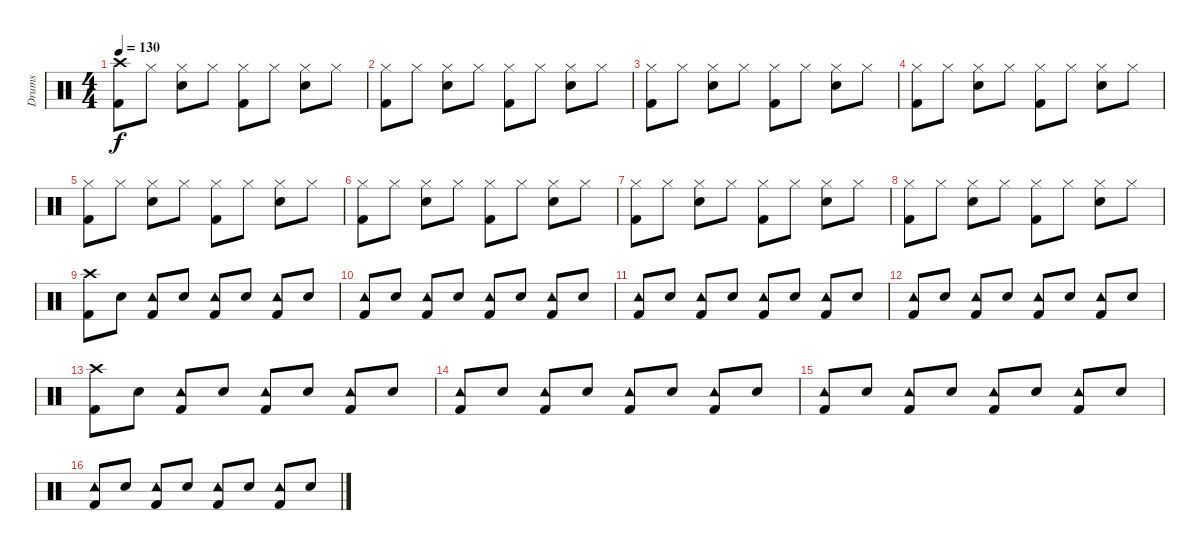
\track ("Drums" "Drums") {instrument percussion}
\staff {score}
\articulation defaults
\ts (4 4)
\tempo 130
\clef neutral
\ks c
("Crash high (hit)" "Kick (hit) 2").8{dy f} "Hi-Hat (closed)".8 ("Hi-Hat (closed)" "Snare (hit) 2").8 "Hi-Hat (closed)".8 ("Hi-Hat (closed)" "Kick (hit) 2").8 "Hi-Hat (closed)".8 ("Hi-Hat (closed)" "Snare (hit) 2").8 "Hi-Hat (closed)".8 |
("Hi-Hat (closed)" "Kick (hit) 2").8 "Hi-Hat (closed)".8 ("Hi-Hat (closed)" "Snare (hit) 2").8 "Hi-Hat (closed)".8 ("Hi-Hat (closed)" "Kick (hit) 2").8 "Hi-Hat (closed)".8 ("Hi-Hat (closed)" "Snare (hit) 2").8 "Hi-Hat (closed)".8 |
("Hi-Hat (closed)" "Kick (hit) 2").8 "Hi-Hat (closed)".8 ("Hi-Hat (closed)" "Snare (hit) 2").8 "Hi-Hat (closed)".8 ("Hi-Hat (closed)" "Kick (hit) 2").8 "Hi-Hat (closed)".8 ("Hi-Hat (closed)" "Snare (hit) 2").8 "Hi-Hat (closed)".8 |
("Hi-Hat (closed)" "Kick (hit) 2").8 "Hi-Hat (closed)".8 ("Hi-Hat (closed)" "Snare (hit) 2").8 "Hi-Hat (closed)".8 ("Hi-Hat (closed)" "Kick (hit) 2").8 "Hi-Hat (closed)".8 ("Hi-Hat (closed)" "Snare (hit) 2").8 "Hi-Hat (closed)".8 |
("Hi-Hat (closed)" "Kick (hit) 2").8 "Hi-Hat (closed)".8 ("Hi-Hat (closed)" "Snare (hit) 2").8 "Hi-Hat (closed)".8 ("Hi-Hat (closed)" "Kick (hit) 2").8 "Hi-Hat (closed)".8 ("Hi-Hat (closed)" "Snare (hit) 2").8 "Hi-Hat (closed)".8 |
("Hi-Hat (closed)" "Kick (hit) 2").8 "Hi-Hat (closed)".8 ("Hi-Hat (closed)" "Snare (hit) 2").8 "Hi-Hat (closed)".8 ("Hi-Hat (closed)" "Kick (hit) 2").8 "Hi-Hat (closed)".8 ("Hi-Hat (closed)" "Snare (hit) 2").8 "Hi-Hat (closed)".8 |
("Hi-Hat (closed)" "Kick (hit) 2").8 "Hi-Hat (closed)".8 ("Hi-Hat (closed)" "Snare (hit) 2").8 "Hi-Hat (closed)".8 ("Hi-Hat (closed)" "Kick (hit) 2").8 "Hi-Hat (closed)".8 ("Hi-Hat (closed)" "Snare (hit) 2").8 "Hi-Hat (closed)".8 |
("Hi-Hat (closed)" "Kick (hit) 2").8 "Hi-Hat (closed)".8 ("Hi-Hat (closed)" "Snare (hit) 2").8 "Hi-Hat (closed)".8 ("Hi-Hat (closed)" "Kick (hit) 2").8 "Hi-Hat (closed)".8 ("Hi-Hat (closed)" "Snare (hit) 2").8 "Hi-Hat (closed)".8 |
("Crash high (hit)" "Kick (hit) 2").8 "Snare (hit) 2".8 ("Tambourine (hit)" "Kick (hit) 2").8 "Snare (hit) 2".8 ("Tambourine (hit)" "Kick (hit) 2").8 "Snare (hit) 2".8 ("Tambourine (hit)" "Kick (hit) 2").8 "Snare (hit) 2".8 |
("Tambourine (hit)" "Kick (hit) 2").8 "Snare (hit) 2".8 ("Tambourine (hit)" "Kick (hit) 2").8 "Snare (hit) 2".8 ("Tambourine (hit)" "Kick (hit) 2").8 "Snare (hit) 2".8 ("Tambourine (hit)" "Kick (hit) 2").8 "Snare (hit) 2".8 |
("Tambourine (hit)" "Kick (hit) 2").8 "Snare (hit) 2".8 ("Tambourine (hit)" "Kick (hit) 2").8 "Snare (hit) 2".8 ("Tambourine (hit)" "Kick (hit) 2").8 "Snare (hit) 2".8 ("Tambourine (hit)" "Kick (hit) 2").8 "Snare (hit) 2".8 |
("Tambourine (hit)" "Kick (hit) 2").8 "Snare (hit) 2".8 ("Tambourine (hit)" "Kick (hit) 2").8 "Snare (hit) 2".8 ("Tambourine (hit)" "Kick (hit) 2").8 "Snare (hit) 2".8 ("Tambourine (hit)" "Kick (hit) 2").8 "Snare (hit) 2".8 |
("Crash high (hit)" "Kick (hit) 2").8 "Snare (hit) 2".8 ("Tambourine (hit)" "Kick (hit) 2").8 "Snare (hit) 2".8 ("Tambourine (hit)" "Kick (hit) 2").8 "Snare (hit) 2".8 ("Tambourine (hit)" "Kick (hit) 2").8 "Snare (hit) 2".8 |
("Tambourine (hit)" "Kick (hit) 2").8 "Snare (hit) 2".8 ("Tambourine (hit)" "Kick (hit) 2").8 "Snare (hit) 2".8 ("Tambourine (hit)" "Kick (hit) 2").8 "Snare (hit) 2".8 ("Tambourine (hit)" "Kick (hit) 2").8 "Snare (hit) 2".8 |
("Tambourine (hit)" "Kick (hit) 2").8 "Snare (hit) 2".8 ("Tambourine (hit)" "Kick (hit) 2").8 "Snare (hit) 2".8 ("Tambourine (hit)" "Kick (hit) 2").8 "Snare (hit) 2".8 ("Tambourine (hit)" "Kick (hit) 2").8 "Snare (hit) 2".8 |
("Tambourine (hit)" "Kick (hit) 2").8 "Snare (hit) 2".8 ("Tambourine (hit)" "Kick (hit) 2").8 "Snare (hit) 2".8 ("Tambourine (hit)" "Kick (hit) 2").8 "Snare (hit) 2".8 ("Tambourine (hit)" "Kick (hit) 2").8 "Snare (hit) 2".8
